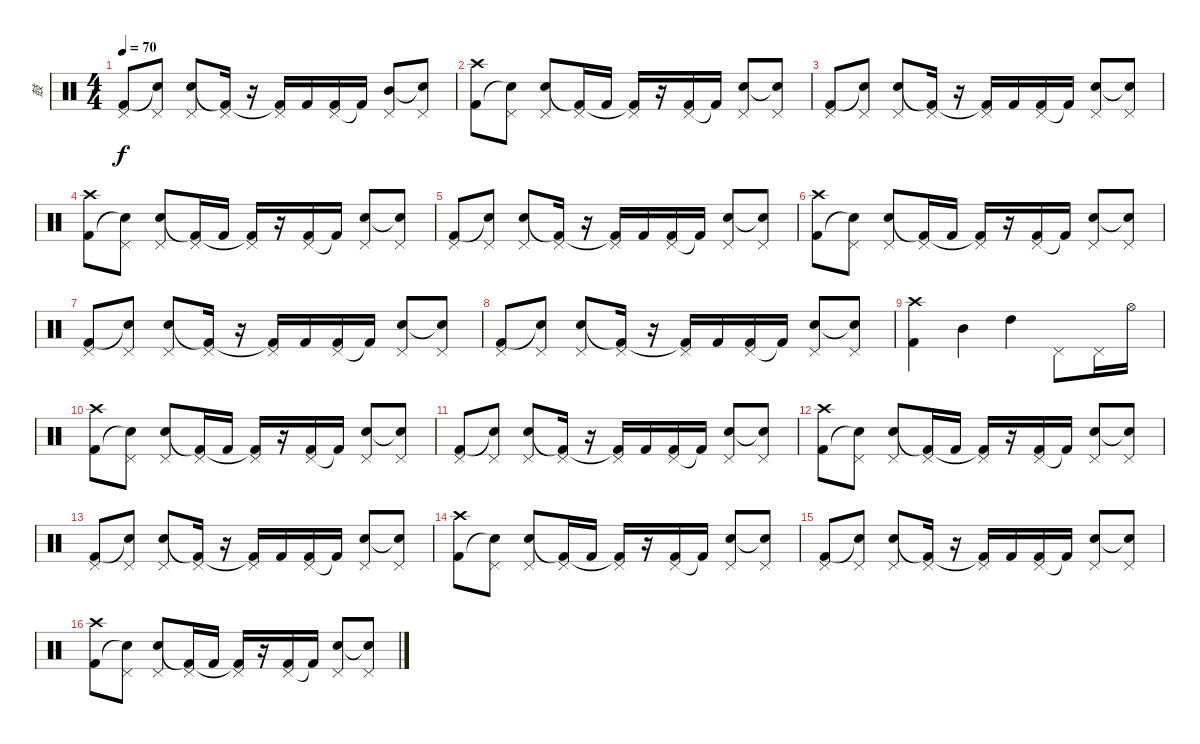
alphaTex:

\track ("鼓" "鼓") {instrument percussion}
\staff {score}
\articulation defaults
\ts (4 4)
\tempo 70
\clef neutral
\ks c
("Pedal Hi-Hat (hit)" "Kick (hit) 2").8{dy f} ("Pedal Hi-Hat (hit)" "Snare (hit)"{t}).8 ("Pedal Hi-Hat (hit)" "Electric Snare (hit)").8 ("Pedal Hi-Hat (hit)" "Kick (hit) 2"{t}).16 r.16 ("Pedal Hi-Hat (hit)" "Kick (hit) 2"{t}).16 "Kick (hit) 2".16 ("Pedal Hi-Hat (hit)" "Kick (hit) 2").16 "Kick (hit) 2"{t}.16 ("Pedal Hi-Hat (hit)" "Mid Tom (hit)").8 ("Pedal Hi-Hat (hit)" "Snare (hit)"{t}).8 |
("Crash high (hit)" "Kick (hit) 2").8 ("Pedal Hi-Hat (hit)" "Snare (hit)"{t}).8 ("Pedal Hi-Hat (hit)" "Electric Snare (hit)").8 ("Pedal Hi-Hat (hit)" "Kick (hit) 2"{t}).16 "Kick (hit) 2".16 ("Pedal Hi-Hat (hit)" "Kick (hit) 2"{t}).16 r.16 ("Pedal Hi-Hat (hit)" "Kick (hit) 2").16 "Kick (hit) 2"{t}.16 ("Pedal Hi-Hat (hit)" "Electric Snare (hit)").8 ("Pedal Hi-Hat (hit)" "Snare (hit)"{t}).8 |
("Pedal Hi-Hat (hit)" "Kick (hit) 2").8 ("Pedal Hi-Hat (hit)" "Snare (hit)"{t}).8 ("Pedal Hi-Hat (hit)" "Electric Snare (hit)").8 ("Pedal Hi-Hat (hit)" "Kick (hit) 2"{t}).16 r.16 ("Pedal Hi-Hat (hit)" "Kick (hit) 2"{t}).16 "Kick (hit) 2".16 ("Pedal Hi-Hat (hit)" "Kick (hit) 2").16 "Kick (hit) 2"{t}.16 ("Pedal Hi-Hat (hit)" "Electric Snare (hit)").8 ("Pedal Hi-Hat (hit)" "Snare (hit)"{t}).8 |
("Crash high (hit)" "Kick (hit) 2").8 ("Pedal Hi-Hat (hit)" "Snare (hit)"{t}).8 ("Pedal Hi-Hat (hit)" "Electric Snare (hit)").8 ("Pedal Hi-Hat (hit)" "Kick (hit) 2"{t}).16 "Kick (hit) 2".16 ("Pedal Hi-Hat (hit)" "Kick (hit) 2"{t}).16 r.16 ("Pedal Hi-Hat (hit)" "Kick (hit) 2").16 "Kick (hit) 2"{t}.16 ("Pedal Hi-Hat (hit)" "Electric Snare (hit)").8 ("Pedal Hi-Hat (hit)" "Snare (hit)"{t}).8 |
("Pedal Hi-Hat (hit)" "Kick (hit) 2").8 ("Pedal Hi-Hat (hit)" "Snare (hit)"{t}).8 ("Pedal Hi-Hat (hit)" "Electric Snare (hit)").8 ("Pedal Hi-Hat (hit)" "Kick (hit) 2"{t}).16 r.16 ("Pedal Hi-Hat (hit)" "Kick (hit) 2"{t}).16 "Kick (hit) 2".16 ("Pedal Hi-Hat (hit)" "Kick (hit) 2").16 "Kick (hit) 2"{t}.16 ("Pedal Hi-Hat (hit)" "Electric Snare (hit)").8 ("Pedal Hi-Hat (hit)" "Snare (hit)"{t}).8 |
("Crash high (hit)" "Kick (hit) 2").8 ("Pedal Hi-Hat (hit)" "Snare (hit)"{t}).8 ("Pedal Hi-Hat (hit)" "Electric Snare (hit)").8 ("Pedal Hi-Hat (hit)" "Kick (hit) 2"{t}).16 "Kick (hit) 2".16 ("Pedal Hi-Hat (hit)" "Kick (hit) 2"{t}).16 r.16 ("Pedal Hi-Hat (hit)" "Kick (hit) 2").16 "Kick (hit) 2"{t}.16 ("Pedal Hi-Hat (hit)" "Electric Snare (hit)").8 ("Pedal Hi-Hat (hit)" "Snare (hit)"{t}).8 |
("Pedal Hi-Hat (hit)" "Kick (hit) 2").8 ("Pedal Hi-Hat (hit)" "Snare (hit)"{t}).8 ("Pedal Hi-Hat (hit)" "Electric Snare (hit)").8 ("Pedal Hi-Hat (hit)" "Kick (hit) 2"{t}).16 r.16 ("Pedal Hi-Hat (hit)" "Kick (hit) 2"{t}).16 "Kick (hit) 2".16 ("Pedal Hi-Hat (hit)" "Kick (hit) 2").16 "Kick (hit) 2"{t}.16 ("Pedal Hi-Hat (hit)" "Electric Snare (hit)").8 ("Pedal Hi-Hat (hit)" "Snare (hit)"{t}).8 |
("Pedal Hi-Hat (hit)" "Kick (hit) 2").8 ("Pedal Hi-Hat (hit)" "Snare (hit)"{t}).8 ("Pedal Hi-Hat (hit)" "Electric Snare (hit)").8 ("Pedal Hi-Hat (hit)" "Kick (hit) 2"{t}).16 r.16 ("Pedal Hi-Hat (hit)" "Kick (hit) 2"{t}).16 "Kick (hit) 2".16 ("Pedal Hi-Hat (hit)" "Kick (hit) 2").16 "Kick (hit) 2"{t}.16 ("Pedal Hi-Hat (hit)" "Electric Snare (hit)").8 ("Pedal Hi-Hat (hit)" "Snare (hit)"{t}).8 |
("Crash high (hit)" "Kick (hit) 2").4 "Mid Tom (hit)".4 "High Tom (hit)".4 "Pedal Hi-Hat (hit)".8 "Pedal Hi-Hat (hit)".16 "Hi-Hat (open)".16 |
("Crash high (hit)" "Kick (hit) 2").8 ("Pedal Hi-Hat (hit)" "Snare (hit)"{t}).8 ("Pedal Hi-Hat (hit)" "Electric Snare (hit)").8 ("Pedal Hi-Hat (hit)" "Kick (hit) 2"{t}).16 "Kick (hit) 2".16 ("Pedal Hi-Hat (hit)" "Kick (hit) 2"{t}).16 r.16 ("Pedal Hi-Hat (hit)" "Kick (hit) 2").16 "Kick (hit) 2"{t}.16 ("Pedal Hi-Hat (hit)" "Electric Snare (hit)").8 ("Pedal Hi-Hat (hit)" "Snare (hit)"{t}).8 |
("Pedal Hi-Hat (hit)" "Kick (hit) 2").8 ("Pedal Hi-Hat (hit)" "Snare (hit)"{t}).8 ("Pedal Hi-Hat (hit)" "Electric Snare (hit)").8 ("Pedal Hi-Hat (hit)" "Kick (hit) 2"{t}).16 r.16 ("Pedal Hi-Hat (hit)" "Kick (hit) 2"{t}).16 "Kick (hit) 2".16 ("Pedal Hi-Hat (hit)" "Kick (hit) 2").16 "Kick (hit) 2"{t}.16 ("Pedal Hi-Hat (hit)" "Electric Snare (hit)").8 ("Pedal Hi-Hat (hit)" "Snare (hit)"{t}).8 |
("Crash high (hit)" "Kick (hit) 2").8 ("Pedal Hi-Hat (hit)" "Snare (hit)"{t}).8 ("Pedal Hi-Hat (hit)" "Electric Snare (hit)").8 ("Pedal Hi-Hat (hit)" "Kick (hit) 2"{t}).16 "Kick (hit) 2".16 ("Pedal Hi-Hat (hit)" "Kick (hit) 2"{t}).16 r.16 ("Pedal Hi-Hat (hit)" "Kick (hit) 2").16 "Kick (hit) 2"{t}.16 ("Pedal Hi-Hat (hit)" "Electric Snare (hit)").8 ("Pedal Hi-Hat (hit)" "Snare (hit)"{t}).8 |
("Pedal Hi-Hat (hit)" "Kick (hit) 2").8 ("Pedal Hi-Hat (hit)" "Snare (hit)"{t}).8 ("Pedal Hi-Hat (hit)" "Electric Snare (hit)").8 ("Pedal Hi-Hat (hit)" "Kick (hit) 2"{t}).16 r.16 ("Pedal Hi-Hat (hit)" "Kick (hit) 2"{t}).16 "Kick (hit) 2".16 ("Pedal Hi-Hat (hit)" "Kick (hit) 2").16 "Kick (hit) 2"{t}.16 ("Pedal Hi-Hat (hit)" "Electric Snare (hit)").8 ("Pedal Hi-Hat (hit)" "Snare (hit)"{t}).8 |
("Crash high (hit)" "Kick (hit) 2").8 ("Pedal Hi-Hat (hit)" "Snare (hit)"{t}).8 ("Pedal Hi-Hat (hit)" "Electric Snare (hit)").8 ("Pedal Hi-Hat (hit)" "Kick (hit) 2"{t}).16 "Kick (hit) 2".16 ("Pedal Hi-Hat (hit)" "Kick (hit) 2"{t}).16 r.16 ("Pedal Hi-Hat (hit)" "Kick (hit) 2").16 "Kick (hit) 2"{t}.16 ("Pedal Hi-Hat (hit)" "Electric Snare (hit)").8 ("Pedal Hi-Hat (hit)" "Snare (hit)"{t}).8 |
("Pedal Hi-Hat (hit)" "Kick (hit) 2").8 ("Pedal Hi-Hat (hit)" "Snare (hit)"{t}).8 ("Pedal Hi-Hat (hit)" "Electric Snare (hit)").8 ("Pedal Hi-Hat (hit)" "Kick (hit) 2"{t}).16 r.16 ("Pedal Hi-Hat (hit)" "Kick (hit) 2"{t}).16 "Kick (hit) 2".16 ("Pedal Hi-Hat (hit)" "Kick (hit) 2").16 "Kick (hit) 2"{t}.16 ("Pedal Hi-Hat (hit)" "Electric Snare (hit)").8 ("Pedal Hi-Hat (hit)" "Snare (hit)"{t}).8 |
("Crash high (hit)" "Kick (hit) 2").8 ("Pedal Hi-Hat (hit)" "Snare (hit)"{t}).8 ("Pedal Hi-Hat (hit)" "Electric Snare (hit)").8 ("Pedal Hi-Hat (hit)" "Kick (hit) 2"{t}).16 "Kick (hit) 2".16 ("Pedal Hi-Hat (hit)" "Kick (hit) 2"{t}).16 r.16 ("Pedal Hi-Hat (hit)" "Kick (hit) 2").16 "Kick (hit) 2"{t}.16 ("Pedal Hi-Hat (hit)" "Electric Snare (hit)").8 ("Pedal Hi-Hat (hit)" "Snare (hit)"{t}).8
